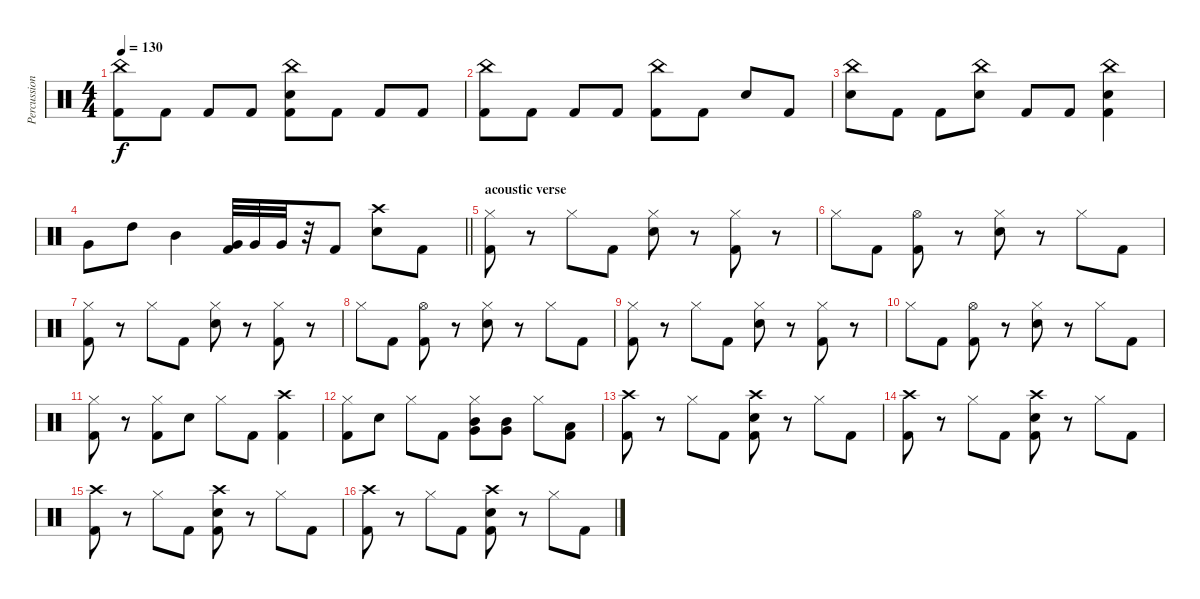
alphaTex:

\track ("Percussion" "Percussion") {instrument percussion}
\staff {score}
\articulation defaults
\ts (4 4)
\tempo 130
\clef neutral
\ks c
("China (hit)" "Kick (hit) 2").8{dy f} "Kick (hit) 2".8 "Kick (hit) 2".8 "Kick (hit) 2".8 ("China (hit)" "Electric Snare (hit)" "Kick (hit) 2").8 "Kick (hit) 2".8 "Kick (hit) 2".8 "Kick (hit) 2".8 |
("China (hit)" "Kick (hit) 2").8 "Kick (hit) 2".8 "Kick (hit) 2".8 "Kick (hit) 2".8 ("China (hit)" "Kick (hit) 2").8 "Kick (hit) 2".8 "Electric Snare (hit)".8 "Kick (hit) 2".8 |
("China (hit)" "Electric Snare (hit)").8 "Kick (hit) 2".8 "Kick (hit) 2".8 ("China (hit)" "Electric Snare (hit)").8 "Kick (hit) 2".8 "Kick (hit) 2".8 ("China (hit)" "Electric Snare (hit)" "Kick (hit) 2").4 |
\barLineRight lightlight "Very Low Tom (hit)".8 "High Tom (hit)".8 "Mid Tom (hit)".4
("Very Low Tom (hit)" "Kick (hit) 2").32 "Very Low Tom (hit)".32 "Very Low Tom (hit)".32 r.32 "Kick (hit) 2".8 ("Crash high (hit)" "Electric Snare (hit)").8 "Kick (hit) 2".8 |
\section ("" "acoustic verse")
("Hi-Hat (closed)" "Kick (hit) 2").8 r.8 "Hi-Hat (closed)".8 "Kick (hit) 2".8 ("Hi-Hat (closed)" "Electric Snare (hit)").8 r.8 ("Hi-Hat (closed)" "Kick (hit) 2").8 r.8 |
"Hi-Hat (closed)".8 "Kick (hit) 2".8 ("Hi-Hat (open)" "Kick (hit) 2").8 r.8 ("Hi-Hat (closed)" "Electric Snare (hit)").8 r.8 "Hi-Hat (closed)".8 "Kick (hit) 2".8 |
("Hi-Hat (closed)" "Kick (hit) 2").8 r.8 "Hi-Hat (closed)".8 "Kick (hit) 2".8 ("Hi-Hat (closed)" "Electric Snare (hit)").8 r.8 ("Hi-Hat (closed)" "Kick (hit) 2").8 r.8 |
"Hi-Hat (closed)".8 "Kick (hit) 2".8 ("Hi-Hat (open)" "Kick (hit) 2").8 r.8 ("Hi-Hat (closed)" "Electric Snare (hit)").8 r.8 "Hi-Hat (closed)".8 "Kick (hit) 2".8 |
("Hi-Hat (closed)" "Kick (hit) 2").8 r.8 "Hi-Hat (closed)".8 "Kick (hit) 2".8 ("Hi-Hat (closed)" "Electric Snare (hit)").8 r.8 ("Hi-Hat (closed)" "Kick (hit) 2").8 r.8 |
"Hi-Hat (closed)".8 "Kick (hit) 2".8 ("Hi-Hat (open)" "Kick (hit) 2").8 r.8 ("Hi-Hat (closed)" "Electric Snare (hit)").8 r.8 "Hi-Hat (closed)".8 "Kick (hit) 2".8 |
("Hi-Hat (closed)" "Kick (hit) 2").8 r.8 ("Hi-Hat (closed)" "Kick (hit) 2").8 "Electric Snare (hit)".8 "Hi-Hat (closed)".8 "Kick (hit) 2".8 ("Crash high (hit)" "Kick (hit) 2").4 |
("Hi-Hat (closed)" "Kick (hit) 2").8 "Electric Snare (hit)".8 "Hi-Hat (closed)".8 "Kick (hit) 2".8 ("Hi-Hat (closed)" "Mid Tom (hit)" "Very Low Tom (hit)").8 ("Mid Tom (hit)" "Very Low Tom (hit)").8 "Hi-Hat (closed)".8 ("Low Tom (hit)" "Kick (hit) 2").8 |
("Crash high (hit)" "Kick (hit) 2").8 r.8 "Hi-Hat (closed)".8 "Kick (hit) 2".8 ("Crash high (hit)" "Electric Snare (hit)" "Kick (hit) 2").8 r.8 "Hi-Hat (closed)".8 "Kick (hit) 2".8 |
("Crash high (hit)" "Kick (hit) 2").8 r.8 "Hi-Hat (closed)".8 "Kick (hit) 2".8 ("Crash high (hit)" "Electric Snare (hit)" "Kick (hit) 2").8 r.8 "Hi-Hat (closed)".8 "Kick (hit) 2".8 |
("Crash high (hit)" "Kick (hit) 2").8 r.8 "Hi-Hat (closed)".8 "Kick (hit) 2".8 ("Crash high (hit)" "Electric Snare (hit)" "Kick (hit) 2").8 r.8 "Hi-Hat (closed)".8 "Kick (hit) 2".8 |
("Crash high (hit)" "Kick (hit) 2").8 r.8 "Hi-Hat (closed)".8 "Kick (hit) 2".8 ("Crash high (hit)" "Electric Snare (hit)" "Kick (hit) 2").8 r.8 "Hi-Hat (closed)".8 "Kick (hit) 2".8
